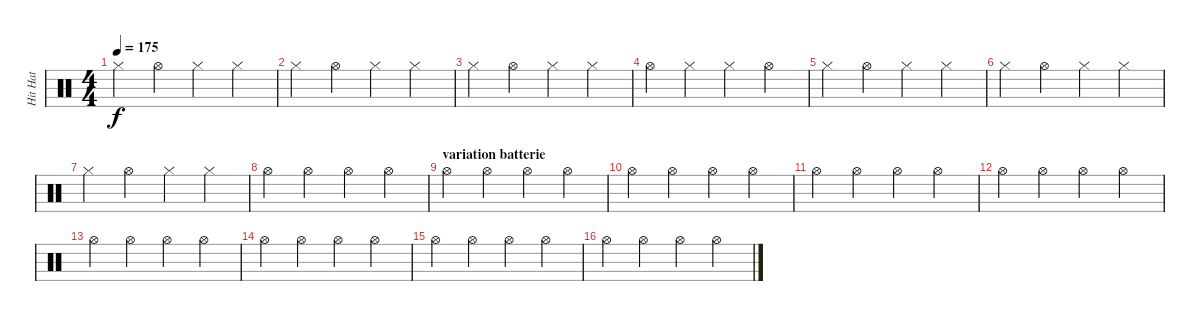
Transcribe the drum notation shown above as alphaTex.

\track ("Hit Hat" "Hit Hat") {instrument percussion}
\staff {score}
\articulation defaults
\ts (4 4)
\tempo 175
\clef neutral
\ks c "Hi-Hat (closed)".4{dy f} "Hi-Hat (open)".4 "Hi-Hat (closed)".4 "Hi-Hat (closed)".4
|
"Hi-Hat (closed)".4 "Hi-Hat (open)".4 "Hi-Hat (closed)".4 "Hi-Hat (closed)".4 |
"Hi-Hat (closed)".4 "Hi-Hat (open)".4 "Hi-Hat (closed)".4 "Hi-Hat (closed)".4 |
"Hi-Hat (open)".4 "Hi-Hat (closed)".4 "Hi-Hat (closed)".4 "Hi-Hat (open)".4 |
"Hi-Hat (closed)".4 "Hi-Hat (open)".4 "Hi-Hat (closed)".4 "Hi-Hat (closed)".4 |
"Hi-Hat (closed)".4 "Hi-Hat (open)".4 "Hi-Hat (closed)".4 "Hi-Hat (closed)".4 |
"Hi-Hat (closed)".4 "Hi-Hat (open)".4 "Hi-Hat (closed)".4 "Hi-Hat (closed)".4 |
"Hi-Hat (open)".4 "Hi-Hat (open)".4 "Hi-Hat (open)".4 "Hi-Hat (open)".4 |
\section ("" "variation batterie")
"Hi-Hat (open)".4 "Hi-Hat (open)".4 "Hi-Hat (open)".4 "Hi-Hat (open)".4 |
"Hi-Hat (open)".4 "Hi-Hat (open)".4 "Hi-Hat (open)".4 "Hi-Hat (open)".4 |
"Hi-Hat (open)".4 "Hi-Hat (open)".4 "Hi-Hat (open)".4 "Hi-Hat (open)".4 |
"Hi-Hat (open)".4 "Hi-Hat (open)".4 "Hi-Hat (open)".4 "Hi-Hat (open)".4 |
"Hi-Hat (open)".4 "Hi-Hat (open)".4 "Hi-Hat (open)".4 "Hi-Hat (open)".4 |
"Hi-Hat (open)".4 "Hi-Hat (open)".4 "Hi-Hat (open)".4 "Hi-Hat (open)".4 |
"Hi-Hat (open)".4 "Hi-Hat (open)".4 "Hi-Hat (open)".4 "Hi-Hat (open)".4 |
"Hi-Hat (open)".4 "Hi-Hat (open)".4 "Hi-Hat (open)".4 "Hi-Hat (open)".4
